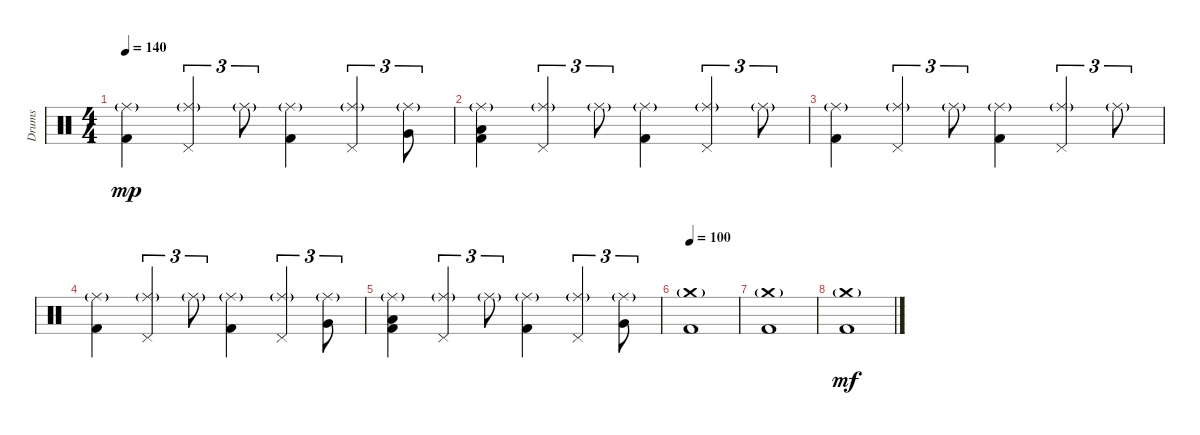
\track ("Drums" "Drums") {instrument percussion}
\staff {score}
\articulation defaults
\ts (4 4)
\tempo 140
\clef neutral
\ks c
("Ride (middle)"{g} "Kick (hit) 2").4{dy mp} ("Ride (middle)"{g} "Pedal Hi-Hat (hit)").4{tu (3 2)} "Ride (middle)"{g}.8{tu (3 2)} ("Ride (middle)"{g} "Kick (hit) 2").4 ("Ride (middle)"{g} "Pedal Hi-Hat (hit)").4{tu (3 2)} ("Ride (middle)"{g} "Very Low Tom (hit)").8{tu (3 2)} |
("Ride (middle)"{g} "Low Floor Tom (hit)" "Kick (hit) 2").4 ("Ride (middle)"{g} "Pedal Hi-Hat (hit)").4{tu (3 2)} "Ride (middle)"{g}.8{tu (3 2)} ("Ride (middle)"{g} "Kick (hit) 2").4 ("Ride (middle)"{g} "Pedal Hi-Hat (hit)").4{tu (3 2)} "Ride (middle)"{g}.8{tu (3 2)} |
("Ride (middle)"{g} "Kick (hit) 2").4 ("Ride (middle)"{g} "Pedal Hi-Hat (hit)").4{tu (3 2)} "Ride (middle)"{g}.8{tu (3 2)} ("Ride (middle)"{g} "Kick (hit) 2").4 ("Ride (middle)"{g} "Pedal Hi-Hat (hit)").4{tu (3 2)} "Ride (middle)"{g}.8{tu (3 2)} |
("Ride (middle)"{g} "Kick (hit) 2").4 ("Ride (middle)"{g} "Pedal Hi-Hat (hit)").4{tu (3 2)} "Ride (middle)"{g}.8{tu (3 2)} ("Ride (middle)"{g} "Kick (hit) 2").4 ("Ride (middle)"{g} "Pedal Hi-Hat (hit)").4{tu (3 2)} ("Ride (middle)"{g} "Very Low Tom (hit)").8{tu (3 2)} |
("Ride (middle)"{g} "Low Floor Tom (hit)" "Kick (hit) 2").4 ("Ride (middle)"{g} "Pedal Hi-Hat (hit)").4{tu (3 2)} "Ride (middle)"{g}.8{tu (3 2)} ("Ride (middle)"{g} "Kick (hit) 2").4 ("Ride (middle)"{g} "Pedal Hi-Hat (hit)").4{tu (3 2)} ("Ride (middle)"{g} "Very Low Tom (hit)").8{tu (3 2)} |
\tempo 100
("Crash medium (hit)"{g} "Kick (hit) 2").1 |
("Crash medium (hit)"{g} "Kick (hit) 2").1 |
("Crash medium (hit)"{g} "Kick (hit) 2").1{dy mf}
